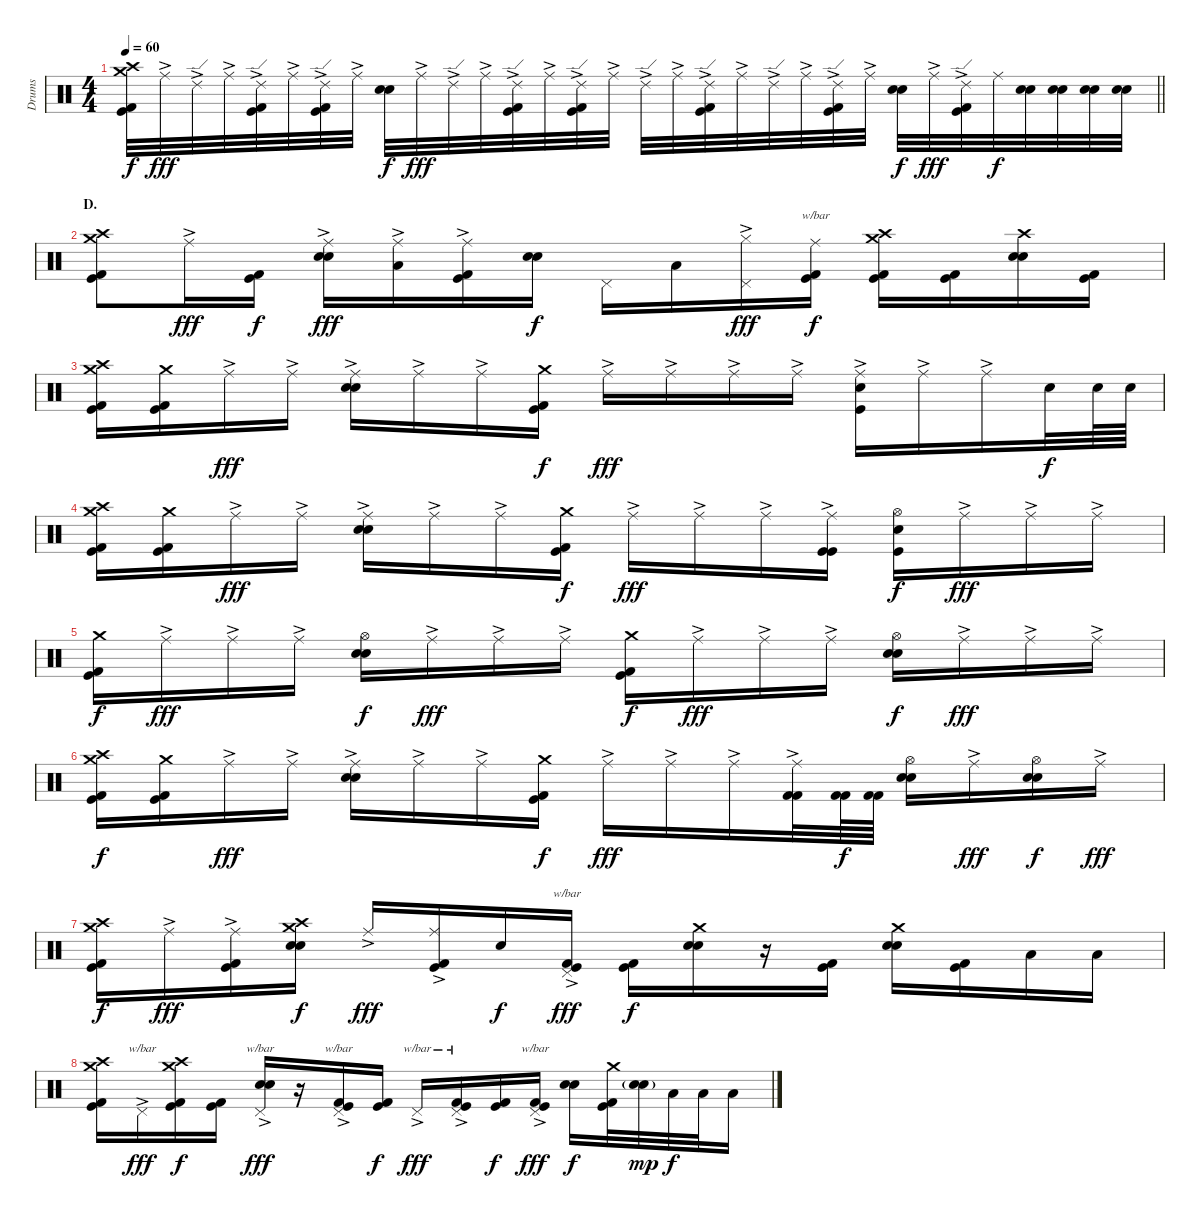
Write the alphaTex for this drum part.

\track ("Drums" "Drums") {instrument percussion}
\staff {score}
\articulation defaults
\ts (4 4)
\tempo 60
\clef neutral
\barLineRight lightlight
\ks c
("Crash high (hit)" "Crash medium (hit)" "Kick (hit)" "Kick (hit) 2").32{dy f} "Ride (middle)"{ac}.32{dy fff} "Ride (edge) 2"{ac}.32 "Ride (middle)"{ac}.32 ("Ride (edge) 2"{ac} "Kick (hit)" "Kick (hit) 2").32 "Ride (middle)"{ac}.32 ("Ride (edge) 2"{ac} "Kick (hit)" "Kick (hit) 2").32 "Ride (middle)"{ac}.32 ("Snare (hit) 2" "Electric Snare (hit)").32{dy f} "Ride (middle)"{ac}.32{dy fff} "Ride (edge) 2"{ac}.32 "Ride (middle)"{ac}.32 ("Ride (edge) 2"{ac} "Kick (hit)" "Kick (hit) 2").32 "Ride (middle)"{ac}.32 ("Ride (edge) 2"{ac} "Kick (hit)" "Kick (hit) 2").32 "Ride (middle)"{ac}.32 "Ride (edge) 2"{ac}.32 "Ride (middle)"{ac}.32 ("Ride (edge) 2"{ac} "Kick (hit)" "Kick (hit) 2").32 "Ride (middle)"{ac}.32 "Ride (edge) 2"{ac}.32 "Ride (middle)"{ac}.32 ("Ride (edge) 2"{ac} "Kick (hit)" "Kick (hit) 2").32 "Ride (middle)"{ac}.32 ("Electric Snare (hit)" "Snare (hit) 2").32{dy f} "Ride (middle)"{ac}.32{dy fff} ("Ride (edge) 2"{ac} "Kick (hit) 2" "Kick (hit)").32 "Ride (middle)".32{dy f} ("Snare (hit) 2" "Electric Snare (hit)").32 ("Snare (hit) 2" "Electric Snare (hit)").32 ("Snare (hit) 2" "Electric Snare (hit)").32 ("Snare (hit) 2" "Electric Snare (hit)").32 |
\section ("" "D.")
("Crash high (hit)" "Crash medium (hit)" "Kick (hit)" "Kick (hit) 2").8 "Ride (middle)"{ac}.16{dy fff} ("Kick (hit)" "Kick (hit) 2").16{dy f} ("Ride (middle)"{ac} "Electric Snare (hit)" "Snare (hit) 2").16{dy fff} ("Ride (middle)"{ac} "Low Tom (hit)").16 ("Ride (middle)"{ac} "Kick (hit)" "Kick (hit) 2").16 ("Electric Snare (hit)" "Snare (hit) 2").16{dy f} "Pedal Hi-Hat (hit)".16 "Low Floor Tom (hit)".16 ("Hi-Hat (closed)"{ac} "Pedal Hi-Hat (hit)").16{dy fff} ("Ride (middle)" "Kick (hit)" "Kick (hit) 2").16{tbe (custom default 0 0 45 -12 60 -12) dy f} ("Crash high (hit)" "Crash medium (hit)" "Kick (hit)" "Kick (hit) 2").16 ("Kick (hit)" "Kick (hit) 2").16 ("Crash high (hit)" "Snare (hit) 2" "Electric Snare (hit)").16 ("Kick (hit)" "Kick (hit) 2").16 |
("Crash high (hit)" "Crash medium (hit)" "Kick (hit)" "Kick (hit) 2").16 ("Crash medium (hit)" "Kick (hit)" "Kick (hit) 2").16 "Ride (middle)"{ac}.16{dy fff} "Ride (middle)"{ac}.16 ("Ride (middle)"{ac} "Electric Snare (hit)" "Snare (hit) 2").16 "Ride (middle)"{ac}.16 "Ride (middle)"{ac}.16 ("Crash medium (hit)" "Kick (hit)" "Kick (hit) 2").16{dy f} "Ride (middle)"{ac}.16{dy fff} "Ride (middle)"{ac}.16 "Ride (middle)"{ac}.16 "Ride (middle)"{ac}.16 ("Ride (middle)"{ac} "Electric Snare (hit)" "Kick (hit)").16 "Ride (middle)"{ac}.16 "Ride (middle)"{ac}.16 "Electric Snare (hit)".32{dy f} "Electric Snare (hit)".64 "Electric Snare (hit)".64 |
("Crash high (hit)" "Crash medium (hit)" "Kick (hit)" "Kick (hit) 2").16 ("Crash medium (hit)" "Kick (hit)" "Kick (hit) 2").16 "Ride (middle)"{ac}.16{dy fff} "Ride (middle)"{ac}.16 ("Ride (middle)"{ac} "Electric Snare (hit)" "Snare (hit) 2").16 "Ride (middle)"{ac}.16 "Ride (middle)"{ac}.16 ("Crash medium (hit)" "Kick (hit)" "Kick (hit) 2").16{dy f} "Ride (middle)"{ac}.16{dy fff} "Ride (middle)"{ac}.16 "Ride (middle)"{ac}.16 ("Ride (middle)"{ac} "Kick (hit)" "Kick (hit)").16 ("Hi-Hat (open)" "Kick (hit)" "Electric Snare (hit)").16{dy f} "Ride (middle)"{ac}.16{dy fff} "Ride (middle)"{ac}.16 "Ride (middle)"{ac}.16 |
("Crash medium (hit)" "Kick (hit)" "Kick (hit) 2").16{dy f} "Ride (middle)"{ac}.16{dy fff} "Ride (middle)"{ac}.16 "Ride (middle)"{ac}.16 ("Hi-Hat (open)" "Snare (hit) 2" "Electric Snare (hit)").16{dy f} "Ride (middle)"{ac}.16{dy fff} "Ride (middle)"{ac}.16 "Ride (middle)"{ac}.16 ("Crash medium (hit)" "Kick (hit)" "Kick (hit) 2").16{dy f} "Ride (middle)"{ac}.16{dy fff} "Ride (middle)"{ac}.16 "Ride (middle)"{ac}.16 ("Hi-Hat (open)" "Electric Snare (hit)" "Snare (hit) 2").16{dy f} "Ride (middle)"{ac}.16{dy fff} "Ride (middle)"{ac}.16 "Ride (middle)"{ac}.16 |
("Crash high (hit)" "Crash medium (hit)" "Kick (hit)" "Kick (hit) 2").16{dy f} ("Crash medium (hit)" "Kick (hit)" "Kick (hit) 2").16 "Ride (middle)"{ac}.16{dy fff} "Ride (middle)"{ac}.16 ("Ride (middle)"{ac} "Electric Snare (hit)" "Snare (hit) 2").16 "Ride (middle)"{ac}.16 "Ride (middle)"{ac}.16 ("Crash medium (hit)" "Kick (hit)" "Kick (hit) 2").16{dy f} "Ride (middle)"{ac}.16{dy fff} "Ride (middle)"{ac}.16 "Ride (middle)"{ac}.16 ("Ride (middle)"{ac} "Kick (hit) 2" "Kick (hit) 2").32 ("Kick (hit) 2" "Kick (hit) 2").64{dy f} ("Kick (hit) 2" "Kick (hit) 2").64 ("Hi-Hat (open)" "Electric Snare (hit)" "Snare (hit) 2").16 "Ride (middle)"{ac}.16{dy fff} ("Hi-Hat (open)" "Electric Snare (hit)" "Snare (hit) 2").16{dy f} "Ride (middle)"{ac}.16{dy fff} |
("Crash high (hit)" "Crash medium (hit)" "Kick (hit)" "Kick (hit) 2").16{dy f} "Ride (middle)"{ac}.16{dy fff} ("Ride (middle)"{ac} "Kick (hit)" "Kick (hit) 2").16 ("Crash high (hit)" "Crash medium (hit)" "Electric Snare (hit)" "Snare (hit) 2").16{dy f} "Ride (middle)"{ac}.16{dy fff} ("Ride (middle)"{ac} "Kick (hit)" "Kick (hit) 2").16 "Snare (hit) 2".16{dy f} ("Pedal Hi-Hat (hit)"{ac} "Kick (hit)" "Kick (hit) 2").16{tbe (custom default 0 0 45 -4 60 -4) dy fff} ("Kick (hit)" "Kick (hit) 2").16{dy f} ("Crash medium (hit)" "Snare (hit) 2" "Electric Snare (hit)").16 r.16 ("Kick (hit)" "Kick (hit) 2").16 ("Crash medium (hit)" "Snare (hit) 2" "Electric Snare (hit)").16 ("Kick (hit)" "Kick (hit) 2").16 "Low Tom (hit)".16 "Low Floor Tom (hit)".16 |
("Crash high (hit)" "Crash medium (hit)" "Kick (hit) 2" "Kick (hit)").16 "Pedal Hi-Hat (hit)"{ac}.16{tbe (custom default 0 0 45 -4 60 -4) dy fff} ("Crash high (hit)" "Crash medium (hit)" "Kick (hit) 2" "Kick (hit)").16{dy f} ("Kick (hit) 2" "Kick (hit)").16 ("Pedal Hi-Hat (hit)"{ac} "Snare (hit) 2" "Electric Snare (hit)").16{tbe (custom default 0 0 45 -4 60 -4) dy fff} r.16 ("Pedal Hi-Hat (hit)"{ac} "Kick (hit) 2" "Kick (hit)").16{tbe (custom default 0 0 45 -4 60 -4)} ("Kick (hit) 2" "Kick (hit)").16{dy f} "Pedal Hi-Hat (hit)"{ac}.16{tbe (custom default 0 0 45 -4 60 -4) dy fff} ("Pedal Hi-Hat (hit)"{ac} "Kick (hit) 2" "Kick (hit)").16{tbe (custom default 0 0 45 -4 60 -4)} ("Kick (hit) 2" "Kick (hit)").16{dy f} ("Pedal Hi-Hat (hit)"{ac} "Kick (hit) 2" "Kick (hit)").16{tbe (custom default 0 0 45 -4 60 -4) dy fff} ("Snare (hit) 2" "Electric Snare (hit)").16{dy f} ("Crash medium (hit)" "Kick (hit) 2" "Kick (hit)").32 ("Snare (hit) 2"{g} "Electric Snare (hit)"{g}).32{dy mp} "Low Tom (hit)".32{dy f} "Low Tom (hit)".32 "Low Floor Tom (hit)".16
